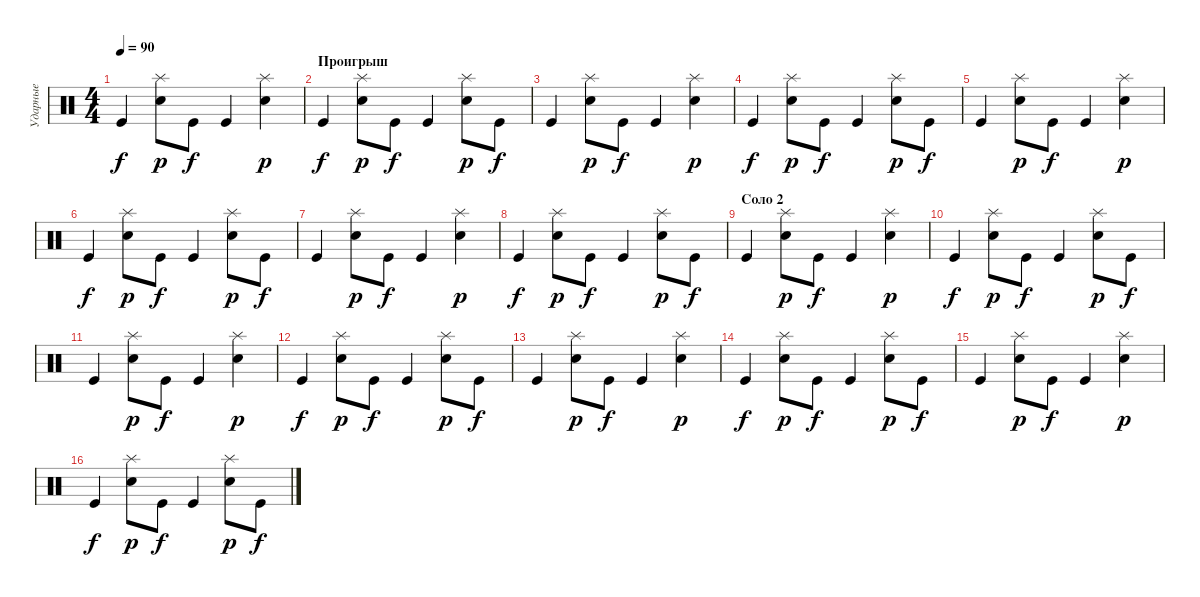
\track ("Ударные" "Ударные") {instrument percussion}
\staff {score}
\articulation defaults
\ts (4 4)
\tempo 90
\clef neutral
\ks c "Kick (hit)".4{dy f}
("Splash (hit)" "Snare (hit) 2").8{dy p} "Kick (hit)".8{dy f} "Kick (hit)".4 ("Splash (hit)" "Snare (hit) 2").4{dy p} |
\section ("" "Проигрыш")
"Kick (hit)".4{dy f} ("Splash (hit)" "Snare (hit) 2").8{dy p} "Kick (hit)".8{dy f} "Kick (hit)".4 ("Splash (hit)" "Snare (hit) 2").8{dy p} "Kick (hit)".8{dy f} |
"Kick (hit)".4 ("Splash (hit)" "Snare (hit) 2").8{dy p} "Kick (hit)".8{dy f} "Kick (hit)".4 ("Splash (hit)" "Snare (hit) 2").4{dy p} |
"Kick (hit)".4{dy f} ("Splash (hit)" "Snare (hit) 2").8{dy p} "Kick (hit)".8{dy f} "Kick (hit)".4 ("Splash (hit)" "Snare (hit) 2").8{dy p} "Kick (hit)".8{dy f} |
"Kick (hit)".4 ("Splash (hit)" "Snare (hit) 2").8{dy p} "Kick (hit)".8{dy f} "Kick (hit)".4 ("Splash (hit)" "Snare (hit) 2").4{dy p} |
"Kick (hit)".4{dy f} ("Splash (hit)" "Snare (hit) 2").8{dy p} "Kick (hit)".8{dy f} "Kick (hit)".4 ("Splash (hit)" "Snare (hit) 2").8{dy p} "Kick (hit)".8{dy f} |
"Kick (hit)".4 ("Splash (hit)" "Snare (hit) 2").8{dy p} "Kick (hit)".8{dy f} "Kick (hit)".4 ("Splash (hit)" "Snare (hit) 2").4{dy p} |
"Kick (hit)".4{dy f} ("Splash (hit)" "Snare (hit) 2").8{dy p} "Kick (hit)".8{dy f} "Kick (hit)".4 ("Splash (hit)" "Snare (hit) 2").8{dy p} "Kick (hit)".8{dy f} |
\section ("" "Соло 2")
"Kick (hit)".4 ("Splash (hit)" "Snare (hit) 2").8{dy p} "Kick (hit)".8{dy f} "Kick (hit)".4 ("Splash (hit)" "Snare (hit) 2").4{dy p} |
"Kick (hit)".4{dy f} ("Splash (hit)" "Snare (hit) 2").8{dy p} "Kick (hit)".8{dy f} "Kick (hit)".4 ("Splash (hit)" "Snare (hit) 2").8{dy p} "Kick (hit)".8{dy f} |
"Kick (hit)".4 ("Splash (hit)" "Snare (hit) 2").8{dy p} "Kick (hit)".8{dy f} "Kick (hit)".4 ("Splash (hit)" "Snare (hit) 2").4{dy p} |
"Kick (hit)".4{dy f} ("Splash (hit)" "Snare (hit) 2").8{dy p} "Kick (hit)".8{dy f} "Kick (hit)".4 ("Splash (hit)" "Snare (hit) 2").8{dy p} "Kick (hit)".8{dy f} |
"Kick (hit)".4 ("Splash (hit)" "Snare (hit) 2").8{dy p} "Kick (hit)".8{dy f} "Kick (hit)".4 ("Splash (hit)" "Snare (hit) 2").4{dy p} |
"Kick (hit)".4{dy f} ("Splash (hit)" "Snare (hit) 2").8{dy p} "Kick (hit)".8{dy f} "Kick (hit)".4 ("Splash (hit)" "Snare (hit) 2").8{dy p} "Kick (hit)".8{dy f} |
"Kick (hit)".4 ("Splash (hit)" "Snare (hit) 2").8{dy p} "Kick (hit)".8{dy f} "Kick (hit)".4 ("Splash (hit)" "Snare (hit) 2").4{dy p} |
"Kick (hit)".4{dy f} ("Splash (hit)" "Snare (hit) 2").8{dy p} "Kick (hit)".8{dy f} "Kick (hit)".4 ("Splash (hit)" "Snare (hit) 2").8{dy p} "Kick (hit)".8{dy f}
